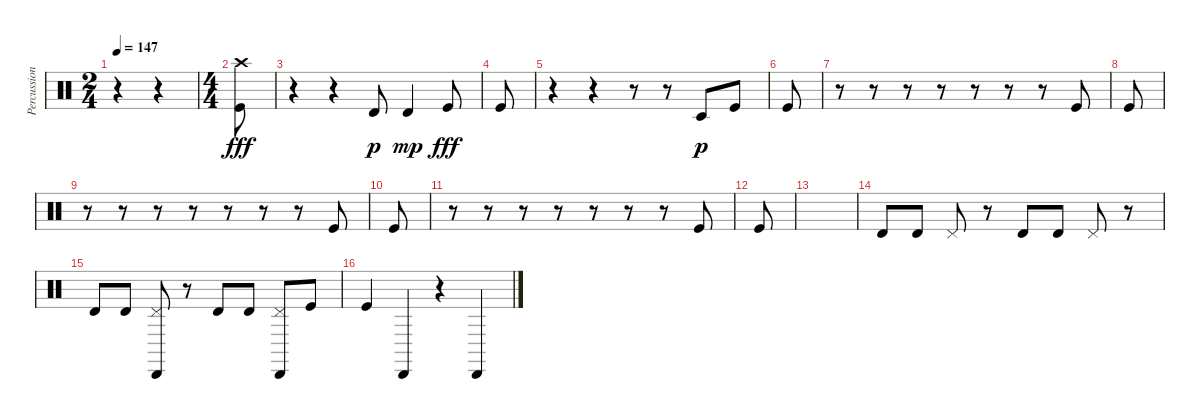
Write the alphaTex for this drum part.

\track ("Percussions" "Percussion") {instrument percussion}
\staff {score}
\articulation defaults
\ts (2 4)
\tempo 147
\clef neutral
\ks c
r.4{dy fff} r.4 |
\ts (4 4)
("Crash high (hit)" "Kick (hit)").8 |
r.4 r.4 "Timbale high (hit)".8{dy p} "Timbale high (hit)".4{dy mp} "Kick (hit)".8{dy fff} |
"Kick (hit)".8 |
r.4 r.4 r.8 r.8 "Timbale low (hit)".8{dy p} "Kick (hit)".8 |
"Kick (hit)".8 |
r.8 r.8 r.8 r.8 r.8 r.8 r.8 "Kick (hit)".8 |
"Kick (hit)".8 |
r.8 r.8 r.8 r.8 r.8 r.8 r.8 "Kick (hit)".8 |
"Kick (hit)".8 |
r.8 r.8 r.8 r.8 r.8 r.8 r.8 "Kick (hit)".8 |
"Kick (hit)".8 |
|
"Timbale high (hit)".8 "Timbale high (hit)".8 "Pedal Hi-Hat (hit)".8 r.8 "Timbale high (hit)".8 "Timbale high (hit)".8 "Pedal Hi-Hat (hit)".8 r.8 |
"Timbale high (hit)".8 "Timbale high (hit)".8 ("Pedal Hi-Hat (hit)" "Cabasa (hit)").8 r.8 "Timbale high (hit)".8 "Timbale high (hit)".8 ("Pedal Hi-Hat (hit)" "Cabasa (hit)").8 "Kick (hit)".8 |
"Kick (hit)".4 "Cabasa (hit)".4 r.4 "Cabasa (hit)".4
